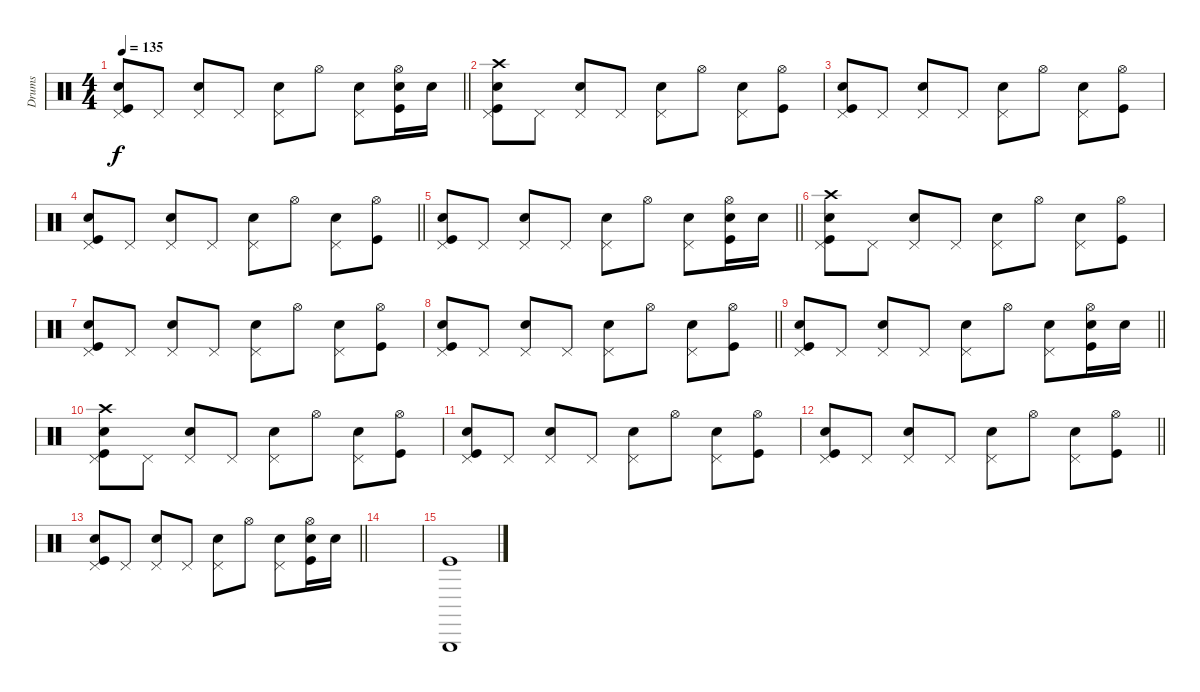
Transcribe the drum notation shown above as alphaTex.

\track ("Drums" "Drums") {instrument percussion}
\staff {score}
\articulation defaults
\ts (4 4)
\tempo 135
\clef neutral
\barLineRight lightlight
\ks c
("Pedal Hi-Hat (hit)" "Kick (hit)" "Electric Snare (hit)").8{dy f} "Pedal Hi-Hat (hit)".8 ("Pedal Hi-Hat (hit)" "Electric Snare (hit)").8 "Pedal Hi-Hat (hit)".8 ("Pedal Hi-Hat (hit)" "Electric Snare (hit)").8 "Hi-Hat (open)".8 ("Pedal Hi-Hat (hit)" "Electric Snare (hit)").8 ("Hi-Hat (open)" "Kick (hit)" "Electric Snare (hit)").16 "Electric Snare (hit)".16 |
("Pedal Hi-Hat (hit)" "Kick (hit)" "Electric Snare (hit)" "Crash high (hit)").8 "Pedal Hi-Hat (hit)".8 ("Pedal Hi-Hat (hit)" "Electric Snare (hit)").8 "Pedal Hi-Hat (hit)".8 ("Pedal Hi-Hat (hit)" "Electric Snare (hit)").8 "Hi-Hat (open)".8 ("Pedal Hi-Hat (hit)" "Electric Snare (hit)").8 ("Hi-Hat (open)" "Kick (hit)").8 |
("Pedal Hi-Hat (hit)" "Kick (hit)" "Electric Snare (hit)").8 "Pedal Hi-Hat (hit)".8 ("Pedal Hi-Hat (hit)" "Electric Snare (hit)").8 "Pedal Hi-Hat (hit)".8 ("Pedal Hi-Hat (hit)" "Electric Snare (hit)").8 "Hi-Hat (open)".8 ("Pedal Hi-Hat (hit)" "Electric Snare (hit)").8 ("Hi-Hat (open)" "Kick (hit)").8 |
\barLineRight lightlight
("Pedal Hi-Hat (hit)" "Kick (hit)" "Electric Snare (hit)").8 "Pedal Hi-Hat (hit)".8 ("Pedal Hi-Hat (hit)" "Electric Snare (hit)").8 "Pedal Hi-Hat (hit)".8 ("Pedal Hi-Hat (hit)" "Electric Snare (hit)").8 "Hi-Hat (open)".8 ("Pedal Hi-Hat (hit)" "Electric Snare (hit)").8 ("Hi-Hat (open)" "Kick (hit)").8 |
\barLineRight lightlight
("Pedal Hi-Hat (hit)" "Kick (hit)" "Electric Snare (hit)").8 "Pedal Hi-Hat (hit)".8 ("Pedal Hi-Hat (hit)" "Electric Snare (hit)").8 "Pedal Hi-Hat (hit)".8 ("Pedal Hi-Hat (hit)" "Electric Snare (hit)").8 "Hi-Hat (open)".8 ("Pedal Hi-Hat (hit)" "Electric Snare (hit)").8 ("Hi-Hat (open)" "Kick (hit)" "Electric Snare (hit)").16 "Electric Snare (hit)".16 |
("Pedal Hi-Hat (hit)" "Kick (hit)" "Electric Snare (hit)" "Crash high (hit)").8 "Pedal Hi-Hat (hit)".8 ("Pedal Hi-Hat (hit)" "Electric Snare (hit)").8 "Pedal Hi-Hat (hit)".8 ("Pedal Hi-Hat (hit)" "Electric Snare (hit)").8 "Hi-Hat (open)".8 ("Pedal Hi-Hat (hit)" "Electric Snare (hit)").8 ("Hi-Hat (open)" "Kick (hit)").8 |
("Pedal Hi-Hat (hit)" "Kick (hit)" "Electric Snare (hit)").8 "Pedal Hi-Hat (hit)".8 ("Pedal Hi-Hat (hit)" "Electric Snare (hit)").8 "Pedal Hi-Hat (hit)".8 ("Pedal Hi-Hat (hit)" "Electric Snare (hit)").8 "Hi-Hat (open)".8 ("Pedal Hi-Hat (hit)" "Electric Snare (hit)").8 ("Hi-Hat (open)" "Kick (hit)").8 |
\barLineRight lightlight
("Pedal Hi-Hat (hit)" "Kick (hit)" "Electric Snare (hit)").8 "Pedal Hi-Hat (hit)".8 ("Pedal Hi-Hat (hit)" "Electric Snare (hit)").8 "Pedal Hi-Hat (hit)".8 ("Pedal Hi-Hat (hit)" "Electric Snare (hit)").8 "Hi-Hat (open)".8 ("Pedal Hi-Hat (hit)" "Electric Snare (hit)").8 ("Hi-Hat (open)" "Kick (hit)").8 |
\barLineRight lightlight
("Pedal Hi-Hat (hit)" "Kick (hit)" "Electric Snare (hit)").8 "Pedal Hi-Hat (hit)".8 ("Pedal Hi-Hat (hit)" "Electric Snare (hit)").8 "Pedal Hi-Hat (hit)".8 ("Pedal Hi-Hat (hit)" "Electric Snare (hit)").8 "Hi-Hat (open)".8 ("Pedal Hi-Hat (hit)" "Electric Snare (hit)").8 ("Hi-Hat (open)" "Kick (hit)" "Electric Snare (hit)").16 "Electric Snare (hit)".16 |
("Pedal Hi-Hat (hit)" "Kick (hit)" "Electric Snare (hit)" "Crash high (hit)").8 "Pedal Hi-Hat (hit)".8 ("Pedal Hi-Hat (hit)" "Electric Snare (hit)").8 "Pedal Hi-Hat (hit)".8 ("Pedal Hi-Hat (hit)" "Electric Snare (hit)").8 "Hi-Hat (open)".8 ("Pedal Hi-Hat (hit)" "Electric Snare (hit)").8 ("Hi-Hat (open)" "Kick (hit)").8 |
("Pedal Hi-Hat (hit)" "Kick (hit)" "Electric Snare (hit)").8 "Pedal Hi-Hat (hit)".8 ("Pedal Hi-Hat (hit)" "Electric Snare (hit)").8 "Pedal Hi-Hat (hit)".8 ("Pedal Hi-Hat (hit)" "Electric Snare (hit)").8 "Hi-Hat (open)".8 ("Pedal Hi-Hat (hit)" "Electric Snare (hit)").8 ("Hi-Hat (open)" "Kick (hit)").8 |
\barLineRight lightlight
("Pedal Hi-Hat (hit)" "Kick (hit)" "Electric Snare (hit)").8 "Pedal Hi-Hat (hit)".8 ("Pedal Hi-Hat (hit)" "Electric Snare (hit)").8 "Pedal Hi-Hat (hit)".8 ("Pedal Hi-Hat (hit)" "Electric Snare (hit)").8 "Hi-Hat (open)".8 ("Pedal Hi-Hat (hit)" "Electric Snare (hit)").8 ("Hi-Hat (open)" "Kick (hit)").8 |
\barLineRight lightlight
("Pedal Hi-Hat (hit)" "Kick (hit)" "Electric Snare (hit)").8 "Pedal Hi-Hat (hit)".8 ("Pedal Hi-Hat (hit)" "Electric Snare (hit)").8 "Pedal Hi-Hat (hit)".8 ("Pedal Hi-Hat (hit)" "Electric Snare (hit)").8 "Hi-Hat (open)".8 ("Pedal Hi-Hat (hit)" "Electric Snare (hit)").8 ("Hi-Hat (open)" "Kick (hit)" "Electric Snare (hit)").16 "Electric Snare (hit)".16 |
|
("Triangle (hit)" "Kick (hit)").1
